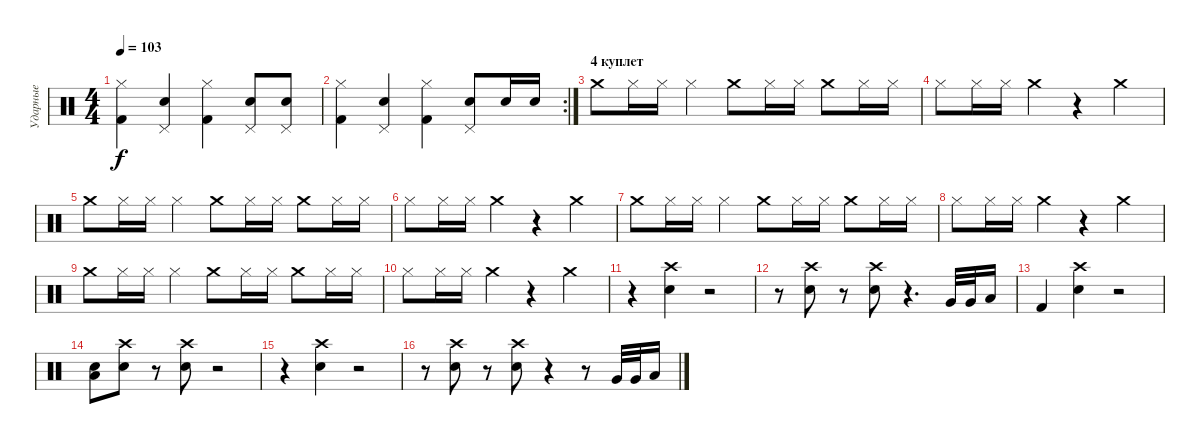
\track ("Ударные" "Ударные") {instrument percussion}
\staff {score}
\articulation defaults
\ts (4 4)
\tempo 103
\clef neutral
\ks c
("Hi-Hat (closed)" "Kick (hit) 2").4{dy f} ("Pedal Hi-Hat (hit)" "Snare (hit) 2").4 ("Hi-Hat (closed)" "Kick (hit) 2").4 ("Pedal Hi-Hat (hit)" "Snare (hit) 2").8 ("Pedal Hi-Hat (hit)" "Snare (hit) 2").8 |
\rc 2
("Hi-Hat (closed)" "Kick (hit) 2").4 ("Pedal Hi-Hat (hit)" "Snare (hit) 2").4 ("Hi-Hat (closed)" "Kick (hit) 2").4 ("Pedal Hi-Hat (hit)" "Snare (hit) 2").8 "Snare (hit) 2".16 "Snare (hit) 2".16 |
\section ("" "4 куплет")
"Crash medium (hit)".8 "Hi-Hat (closed)".16 "Hi-Hat (closed)".16 "Hi-Hat (closed)".4 "Crash medium (hit)".8 "Hi-Hat (closed)".16 "Hi-Hat (closed)".16 "Crash medium (hit)".8 "Hi-Hat (closed)".16 "Hi-Hat (closed)".16 |
"Hi-Hat (closed)".8 "Hi-Hat (closed)".16 "Hi-Hat (closed)".16 "Crash medium (hit)".4 r.4 "Crash medium (hit)".4 |
"Crash medium (hit)".8 "Hi-Hat (closed)".16 "Hi-Hat (closed)".16 "Hi-Hat (closed)".4 "Crash medium (hit)".8 "Hi-Hat (closed)".16 "Hi-Hat (closed)".16 "Crash medium (hit)".8 "Hi-Hat (closed)".16 "Hi-Hat (closed)".16 |
"Hi-Hat (closed)".8 "Hi-Hat (closed)".16 "Hi-Hat (closed)".16 "Crash medium (hit)".4 r.4 "Crash medium (hit)".4 |
"Crash medium (hit)".8 "Hi-Hat (closed)".16 "Hi-Hat (closed)".16 "Hi-Hat (closed)".4 "Crash medium (hit)".8 "Hi-Hat (closed)".16 "Hi-Hat (closed)".16 "Crash medium (hit)".8 "Hi-Hat (closed)".16 "Hi-Hat (closed)".16 |
"Hi-Hat (closed)".8 "Hi-Hat (closed)".16 "Hi-Hat (closed)".16 "Crash medium (hit)".4 r.4 "Crash medium (hit)".4 |
"Crash medium (hit)".8 "Hi-Hat (closed)".16 "Hi-Hat (closed)".16 "Hi-Hat (closed)".4 "Crash medium (hit)".8 "Hi-Hat (closed)".16 "Hi-Hat (closed)".16 "Crash medium (hit)".8 "Hi-Hat (closed)".16 "Hi-Hat (closed)".16 |
"Hi-Hat (closed)".8 "Hi-Hat (closed)".16 "Hi-Hat (closed)".16 "Crash medium (hit)".4 r.4 "Crash medium (hit)".4 |
r.4 ("Crash high (hit)" "Snare (hit) 2").4 r.2 |
r.8 ("Crash high (hit)" "Snare (hit) 2").8 r.8 ("Crash high (hit)" "Snare (hit) 2").8 r.4{d} "Very Low Tom (hit)".32 "Very Low Tom (hit)".32 "Low Floor Tom (hit)".16 |
"Kick (hit) 2".4 ("Crash high (hit)" "Snare (hit) 2").4 r.2 |
("Snare (hit) 2" "Low Floor Tom (hit)").8 ("Crash high (hit)" "Snare (hit) 2").8 r.8 ("Crash high (hit)" "Snare (hit) 2").8 r.2 |
r.4 ("Crash high (hit)" "Snare (hit) 2").4 r.2 |
r.8 ("Crash high (hit)" "Snare (hit) 2").8 r.8 ("Crash high (hit)" "Snare (hit) 2").8 r.4 r.8 "Very Low Tom (hit)".32 "Very Low Tom (hit)".32 "Low Floor Tom (hit)".16
